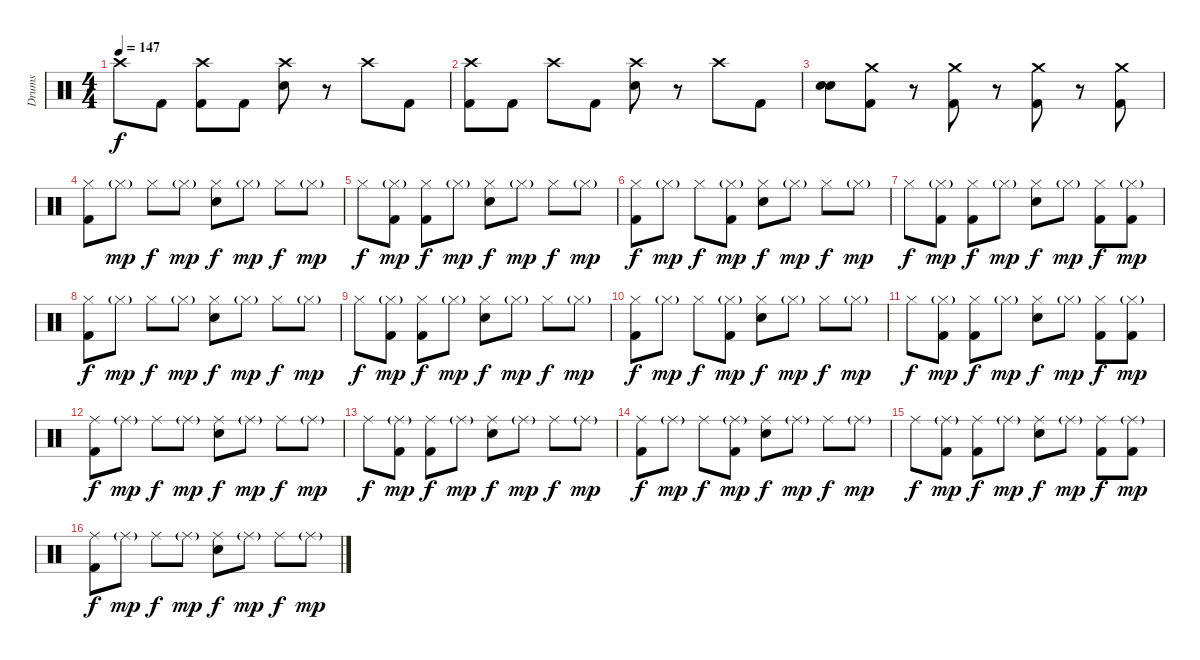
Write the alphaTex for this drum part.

\track ("Drums" "Drums") {instrument percussion}
\staff {score}
\articulation defaults
\ts (4 4)
\tempo 147
\clef neutral
\ks c "Crash high (hit)".8{dy f} "Kick (hit) 2".8
("Crash high (hit)" "Kick (hit) 2").8 "Kick (hit) 2".8 ("Crash high (hit)" "Electric Snare (hit)").8 r.8 "Crash high (hit)".8 "Kick (hit) 2".8 |
("Crash high (hit)" "Kick (hit) 2").8 "Kick (hit) 2".8 "Crash high (hit)".8 "Kick (hit) 2".8 ("Crash high (hit)" "Electric Snare (hit)").8 r.8 "Crash high (hit)".8 "Kick (hit) 2".8 |
("Electric Snare (hit)" "Snare (hit) 2").8 ("Crash medium (hit)" "Kick (hit) 2").8 r.8 ("Crash medium (hit)" "Kick (hit) 2").8 r.8 ("Crash medium (hit)" "Kick (hit) 2").8 r.8 ("Crash medium (hit)" "Kick (hit) 2").8 |
("Hi-Hat (closed)" "Kick (hit) 2").8 "Hi-Hat (closed)"{g}.8{dy mp} "Hi-Hat (closed)".8{dy f} "Hi-Hat (closed)"{g}.8{dy mp} ("Hi-Hat (closed)" "Snare (hit) 2").8{dy f} "Hi-Hat (closed)"{g}.8{dy mp} "Hi-Hat (closed)".8{dy f} "Hi-Hat (closed)"{g}.8{dy mp} |
"Hi-Hat (closed)".8{dy f} ("Hi-Hat (closed)"{g} "Kick (hit) 2").8{dy mp} ("Hi-Hat (closed)" "Kick (hit) 2").8{dy f} "Hi-Hat (closed)"{g}.8{dy mp} ("Hi-Hat (closed)" "Snare (hit) 2").8{dy f} "Hi-Hat (closed)"{g}.8{dy mp} "Hi-Hat (closed)".8{dy f} "Hi-Hat (closed)"{g}.8{dy mp} |
("Hi-Hat (closed)" "Kick (hit) 2").8{dy f} "Hi-Hat (closed)"{g}.8{dy mp} "Hi-Hat (closed)".8{dy f} ("Hi-Hat (closed)"{g} "Kick (hit) 2").8{dy mp} ("Hi-Hat (closed)" "Snare (hit) 2").8{dy f} "Hi-Hat (closed)"{g}.8{dy mp} "Hi-Hat (closed)".8{dy f} "Hi-Hat (closed)"{g}.8{dy mp} |
"Hi-Hat (closed)".8{dy f} ("Hi-Hat (closed)"{g} "Kick (hit) 2").8{dy mp} ("Hi-Hat (closed)" "Kick (hit) 2").8{dy f} "Hi-Hat (closed)"{g}.8{dy mp} ("Hi-Hat (closed)" "Snare (hit) 2").8{dy f} "Hi-Hat (closed)"{g}.8{dy mp} ("Hi-Hat (closed)" "Kick (hit) 2").8{dy f} ("Hi-Hat (closed)"{g} "Kick (hit) 2").8{dy mp} |
("Hi-Hat (closed)" "Kick (hit) 2").8{dy f} "Hi-Hat (closed)"{g}.8{dy mp} "Hi-Hat (closed)".8{dy f} "Hi-Hat (closed)"{g}.8{dy mp} ("Hi-Hat (closed)" "Snare (hit) 2").8{dy f} "Hi-Hat (closed)"{g}.8{dy mp} "Hi-Hat (closed)".8{dy f} "Hi-Hat (closed)"{g}.8{dy mp} |
"Hi-Hat (closed)".8{dy f} ("Hi-Hat (closed)"{g} "Kick (hit) 2").8{dy mp} ("Hi-Hat (closed)" "Kick (hit) 2").8{dy f} "Hi-Hat (closed)"{g}.8{dy mp} ("Hi-Hat (closed)" "Snare (hit) 2").8{dy f} "Hi-Hat (closed)"{g}.8{dy mp} "Hi-Hat (closed)".8{dy f} "Hi-Hat (closed)"{g}.8{dy mp} |
("Hi-Hat (closed)" "Kick (hit) 2").8{dy f} "Hi-Hat (closed)"{g}.8{dy mp} "Hi-Hat (closed)".8{dy f} ("Hi-Hat (closed)"{g} "Kick (hit) 2").8{dy mp} ("Hi-Hat (closed)" "Snare (hit) 2").8{dy f} "Hi-Hat (closed)"{g}.8{dy mp} "Hi-Hat (closed)".8{dy f} "Hi-Hat (closed)"{g}.8{dy mp} |
"Hi-Hat (closed)".8{dy f} ("Hi-Hat (closed)"{g} "Kick (hit) 2").8{dy mp} ("Hi-Hat (closed)" "Kick (hit) 2").8{dy f} "Hi-Hat (closed)"{g}.8{dy mp} ("Hi-Hat (closed)" "Snare (hit) 2").8{dy f} "Hi-Hat (closed)"{g}.8{dy mp} ("Hi-Hat (closed)" "Kick (hit) 2").8{dy f} ("Hi-Hat (closed)"{g} "Kick (hit) 2").8{dy mp} |
("Ride (middle)" "Kick (hit) 2").8{dy f} "Ride (middle)"{g}.8{dy mp} "Ride (middle)".8{dy f} "Ride (middle)"{g}.8{dy mp} ("Ride (middle)" "Snare (hit) 2").8{dy f} "Ride (middle)"{g}.8{dy mp} "Ride (middle)".8{dy f} "Ride (middle)"{g}.8{dy mp} |
"Ride (middle)".8{dy f} ("Ride (middle)"{g} "Kick (hit) 2").8{dy mp} ("Ride (middle)" "Kick (hit) 2").8{dy f} "Ride (middle)"{g}.8{dy mp} ("Ride (middle)" "Snare (hit) 2").8{dy f} "Ride (middle)"{g}.8{dy mp} "Ride (middle)".8{dy f} "Ride (middle)"{g}.8{dy mp} |
("Ride (middle)" "Kick (hit) 2").8{dy f} "Ride (middle)"{g}.8{dy mp} "Ride (middle)".8{dy f} ("Ride (middle)"{g} "Kick (hit) 2").8{dy mp} ("Ride (middle)" "Snare (hit) 2").8{dy f} "Ride (middle)"{g}.8{dy mp} "Ride (middle)".8{dy f} "Ride (middle)"{g}.8{dy mp} |
"Ride (middle)".8{dy f} ("Ride (middle)"{g} "Kick (hit) 2").8{dy mp} ("Ride (middle)" "Kick (hit) 2").8{dy f} "Ride (middle)"{g}.8{dy mp} ("Ride (middle)" "Snare (hit) 2").8{dy f} "Ride (middle)"{g}.8{dy mp} ("Ride (middle)" "Kick (hit) 2").8{dy f} ("Ride (middle)"{g} "Kick (hit) 2").8{dy mp} |
("Ride (middle)" "Kick (hit) 2").8{dy f} "Ride (middle)"{g}.8{dy mp} "Ride (middle)".8{dy f} "Ride (middle)"{g}.8{dy mp} ("Ride (middle)" "Snare (hit) 2").8{dy f} "Ride (middle)"{g}.8{dy mp} "Ride (middle)".8{dy f} "Ride (middle)"{g}.8{dy mp}
